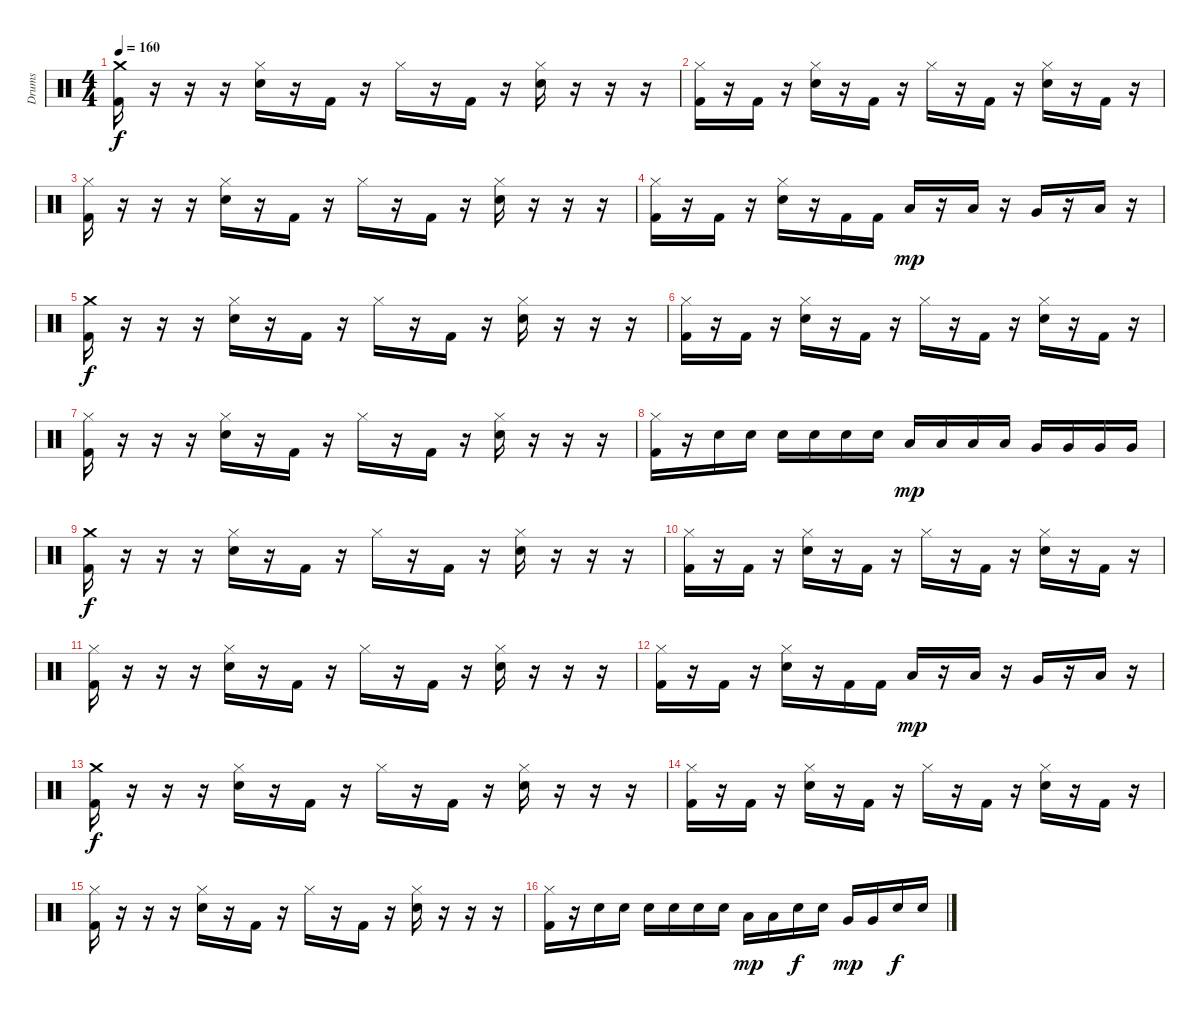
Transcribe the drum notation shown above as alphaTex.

\track ("Drums" "Drums") {instrument percussion}
\staff {score}
\articulation defaults
\ts (4 4)
\tempo 160
\clef neutral
\ks c
("Crash medium (hit)" "Kick (hit) 2").16{dy f} r.16 r.16 r.16 ("Hi-Hat (closed)" "Snare (hit) 2").16 r.16 "Kick (hit) 2".16 r.16 "Hi-Hat (closed)".16 r.16 "Kick (hit) 2".16 r.16 ("Hi-Hat (closed)" "Snare (hit) 2").16 r.16 r.16 r.16 |
("Hi-Hat (closed)" "Kick (hit) 2").16 r.16 "Kick (hit) 2".16 r.16 ("Hi-Hat (closed)" "Snare (hit) 2").16 r.16 "Kick (hit) 2".16 r.16 "Hi-Hat (closed)".16 r.16 "Kick (hit) 2".16 r.16 ("Hi-Hat (closed)" "Snare (hit) 2").16 r.16 "Kick (hit) 2".16 r.16 |
("Hi-Hat (closed)" "Kick (hit) 2").16 r.16 r.16 r.16 ("Hi-Hat (closed)" "Snare (hit) 2").16 r.16 "Kick (hit) 2".16 r.16 "Hi-Hat (closed)".16 r.16 "Kick (hit) 2".16 r.16 ("Hi-Hat (closed)" "Snare (hit) 2").16 r.16 r.16 r.16 |
("Hi-Hat (closed)" "Kick (hit) 2").16 r.16 "Kick (hit) 2".16 r.16 ("Hi-Hat (closed)" "Snare (hit) 2").16 r.16 "Kick (hit) 2".16 "Kick (hit) 2".16 "Low Tom (hit)".16{dy mp} r.16 "Low Tom (hit)".16 r.16 "Very Low Tom (hit)".16 r.16 "Low Floor Tom (hit)".16 r.16 |
("Crash medium (hit)" "Kick (hit) 2").16{dy f} r.16 r.16 r.16 ("Hi-Hat (closed)" "Snare (hit) 2").16 r.16 "Kick (hit) 2".16 r.16 "Hi-Hat (closed)".16 r.16 "Kick (hit) 2".16 r.16 ("Hi-Hat (closed)" "Snare (hit) 2").16 r.16 r.16 r.16 |
("Hi-Hat (closed)" "Kick (hit) 2").16 r.16 "Kick (hit) 2".16 r.16 ("Hi-Hat (closed)" "Snare (hit) 2").16 r.16 "Kick (hit) 2".16 r.16 "Hi-Hat (closed)".16 r.16 "Kick (hit) 2".16 r.16 ("Hi-Hat (closed)" "Snare (hit) 2").16 r.16 "Kick (hit) 2".16 r.16 |
("Hi-Hat (closed)" "Kick (hit) 2").16 r.16 r.16 r.16 ("Hi-Hat (closed)" "Snare (hit) 2").16 r.16 "Kick (hit) 2".16 r.16 "Hi-Hat (closed)".16 r.16 "Kick (hit) 2".16 r.16 ("Hi-Hat (closed)" "Snare (hit) 2").16 r.16 r.16 r.16 |
("Hi-Hat (closed)" "Kick (hit) 2").16 r.16 "Snare (hit) 2".16 "Snare (hit) 2".16 "Snare (hit) 2".16 "Snare (hit) 2".16 "Snare (hit) 2".16 "Snare (hit) 2".16 "Low Tom (hit)".16{dy mp} "Low Tom (hit)".16 "Low Tom (hit)".16 "Low Tom (hit)".16 "Very Low Tom (hit)".16 "Very Low Tom (hit)".16 "Very Low Tom (hit)".16 "Very Low Tom (hit)".16 |
("Crash medium (hit)" "Kick (hit) 2").16{dy f} r.16 r.16 r.16 ("Hi-Hat (closed)" "Snare (hit) 2").16 r.16 "Kick (hit) 2".16 r.16 "Hi-Hat (closed)".16 r.16 "Kick (hit) 2".16 r.16 ("Hi-Hat (closed)" "Snare (hit) 2").16 r.16 r.16 r.16 |
("Hi-Hat (closed)" "Kick (hit) 2").16 r.16 "Kick (hit) 2".16 r.16 ("Hi-Hat (closed)" "Snare (hit) 2").16 r.16 "Kick (hit) 2".16 r.16 "Hi-Hat (closed)".16 r.16 "Kick (hit) 2".16 r.16 ("Hi-Hat (closed)" "Snare (hit) 2").16 r.16 "Kick (hit) 2".16 r.16 |
("Hi-Hat (closed)" "Kick (hit) 2").16 r.16 r.16 r.16 ("Hi-Hat (closed)" "Snare (hit) 2").16 r.16 "Kick (hit) 2".16 r.16 "Hi-Hat (closed)".16 r.16 "Kick (hit) 2".16 r.16 ("Hi-Hat (closed)" "Snare (hit) 2").16 r.16 r.16 r.16 |
("Hi-Hat (closed)" "Kick (hit) 2").16 r.16 "Kick (hit) 2".16 r.16 ("Hi-Hat (closed)" "Snare (hit) 2").16 r.16 "Kick (hit) 2".16 "Kick (hit) 2".16 "Low Tom (hit)".16{dy mp} r.16 "Low Tom (hit)".16 r.16 "Very Low Tom (hit)".16 r.16 "Low Floor Tom (hit)".16 r.16 |
("Crash medium (hit)" "Kick (hit) 2").16{dy f} r.16 r.16 r.16 ("Hi-Hat (closed)" "Snare (hit) 2").16 r.16 "Kick (hit) 2".16 r.16 "Hi-Hat (closed)".16 r.16 "Kick (hit) 2".16 r.16 ("Hi-Hat (closed)" "Snare (hit) 2").16 r.16 r.16 r.16 |
("Hi-Hat (closed)" "Kick (hit) 2").16 r.16 "Kick (hit) 2".16 r.16 ("Hi-Hat (closed)" "Snare (hit) 2").16 r.16 "Kick (hit) 2".16 r.16 "Hi-Hat (closed)".16 r.16 "Kick (hit) 2".16 r.16 ("Hi-Hat (closed)" "Snare (hit) 2").16 r.16 "Kick (hit) 2".16 r.16 |
("Hi-Hat (closed)" "Kick (hit) 2").16 r.16 r.16 r.16 ("Hi-Hat (closed)" "Snare (hit) 2").16 r.16 "Kick (hit) 2".16 r.16 "Hi-Hat (closed)".16 r.16 "Kick (hit) 2".16 r.16 ("Hi-Hat (closed)" "Snare (hit) 2").16 r.16 r.16 r.16 |
("Hi-Hat (closed)" "Kick (hit) 2").16 r.16 "Snare (hit) 2".16 "Snare (hit) 2".16 "Snare (hit) 2".16 "Snare (hit) 2".16 "Snare (hit) 2".16 "Snare (hit) 2".16 "Low Tom (hit)".16{dy mp} "Low Tom (hit)".16 "Snare (hit) 2".16{dy f} "Snare (hit) 2".16 "Very Low Tom (hit)".16{dy mp} "Very Low Tom (hit)".16 "Snare (hit) 2".16{dy f} "Snare (hit) 2".16
